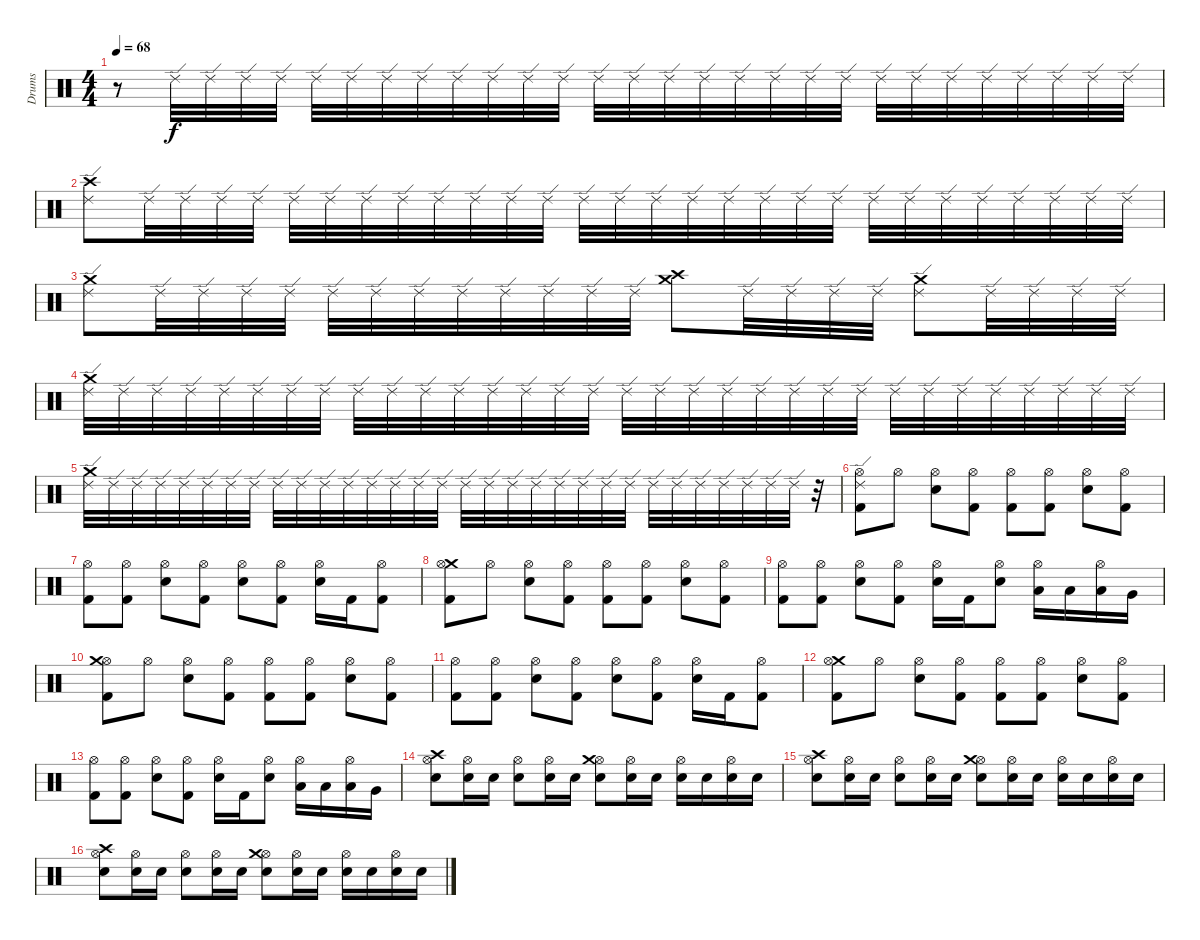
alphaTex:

\track ("Drums" "Drums") {instrument percussion}
\staff {score}
\articulation defaults
\ts (4 4)
\tempo 68
\clef neutral
\ks c
r.8{dy f} "Ride (edge) 2".32 "Ride (edge) 2".32 "Ride (edge) 2".32 "Ride (edge) 2".32 "Ride (edge) 2".32 "Ride (edge) 2".32 "Ride (edge) 2".32 "Ride (edge) 2".32 "Ride (edge) 2".32 "Ride (edge) 2".32 "Ride (edge) 2".32 "Ride (edge) 2".32 "Ride (edge) 2".32 "Ride (edge) 2".32 "Ride (edge) 2".32 "Ride (edge) 2".32 "Ride (edge) 2".32 "Ride (edge) 2".32 "Ride (edge) 2".32 "Ride (edge) 2".32 "Ride (edge) 2".32 "Ride (edge) 2".32 "Ride (edge) 2".32 "Ride (edge) 2".32 "Ride (edge) 2".32 "Ride (edge) 2".32 "Ride (edge) 2".32 "Ride (edge) 2".32 |
("Ride (edge) 2" "Crash high (hit)").8 "Ride (edge) 2".32 "Ride (edge) 2".32 "Ride (edge) 2".32 "Ride (edge) 2".32 "Ride (edge) 2".32 "Ride (edge) 2".32 "Ride (edge) 2".32 "Ride (edge) 2".32 "Ride (edge) 2".32 "Ride (edge) 2".32 "Ride (edge) 2".32 "Ride (edge) 2".32 "Ride (edge) 2".32 "Ride (edge) 2".32 "Ride (edge) 2".32 "Ride (edge) 2".32 "Ride (edge) 2".32 "Ride (edge) 2".32 "Ride (edge) 2".32 "Ride (edge) 2".32 "Ride (edge) 2".32 "Ride (edge) 2".32 "Ride (edge) 2".32 "Ride (edge) 2".32 "Ride (edge) 2".32 "Ride (edge) 2".32 "Ride (edge) 2".32 "Ride (edge) 2".32 |
("Crash medium (hit)" "Ride (edge) 2").8 "Ride (edge) 2".32 "Ride (edge) 2".32 "Ride (edge) 2".32 "Ride (edge) 2".32 "Ride (edge) 2".32 "Ride (edge) 2".32 "Ride (edge) 2".32 "Ride (edge) 2".32 "Ride (edge) 2".32 "Ride (edge) 2".32 "Ride (edge) 2".32 "Ride (edge) 2".32 ("Crash medium (hit)" "Crash high (hit)").8 "Ride (edge) 2".32 "Ride (edge) 2".32 "Ride (edge) 2".32 "Ride (edge) 2".32 ("Ride (edge) 2" "Crash medium (hit)").8 "Ride (edge) 2".32 "Ride (edge) 2".32 "Ride (edge) 2".32 "Ride (edge) 2".32 |
("Ride (edge) 2" "Crash medium (hit)").32 "Ride (edge) 2".32 "Ride (edge) 2".32 "Ride (edge) 2".32 "Ride (edge) 2".32 "Ride (edge) 2".32 "Ride (edge) 2".32 "Ride (edge) 2".32 "Ride (edge) 2".32 "Ride (edge) 2".32 "Ride (edge) 2".32 "Ride (edge) 2".32 "Ride (edge) 2".32 "Ride (edge) 2".32 "Ride (edge) 2".32 "Ride (edge) 2".32 "Ride (edge) 2".32 "Ride (edge) 2".32 "Ride (edge) 2".32 "Ride (edge) 2".32 "Ride (edge) 2".32 "Ride (edge) 2".32 "Ride (edge) 2".32 "Ride (edge) 2".32 "Ride (edge) 2".32 "Ride (edge) 2".32 "Ride (edge) 2".32 "Ride (edge) 2".32 "Ride (edge) 2".32 "Ride (edge) 2".32 "Ride (edge) 2".32 "Ride (edge) 2".32 |
("Ride (edge) 2" "Crash medium (hit)").32 "Ride (edge) 2".32 "Ride (edge) 2".32 "Ride (edge) 2".32 "Ride (edge) 2".32 "Ride (edge) 2".32 "Ride (edge) 2".32 "Ride (edge) 2".32 "Ride (edge) 2".32 "Ride (edge) 2".32 "Ride (edge) 2".32 "Ride (edge) 2".32 "Ride (edge) 2".32 "Ride (edge) 2".32 "Ride (edge) 2".32 "Ride (edge) 2".32 "Ride (edge) 2".32 "Ride (edge) 2".32 "Ride (edge) 2".32 "Ride (edge) 2".32 "Ride (edge) 2".32 "Ride (edge) 2".32 "Ride (edge) 2".32 "Ride (edge) 2".32 "Ride (edge) 2".32 "Ride (edge) 2".32 "Ride (edge) 2".32 "Ride (edge) 2".32 "Ride (edge) 2".32 "Ride (edge) 2".32 "Ride (edge) 2".32 r.32 |
("Ride (edge) 2" "Kick (hit) 2" "Hi-Hat (open)").8 "Hi-Hat (open)".8 ("Snare (hit) 2" "Hi-Hat (open)").8 ("Kick (hit) 2" "Hi-Hat (open)").8 ("Kick (hit) 2" "Hi-Hat (open)").8 ("Kick (hit) 2" "Hi-Hat (open)").8 ("Snare (hit) 2" "Hi-Hat (open)").8 ("Kick (hit) 2" "Hi-Hat (open)").8 |
("Kick (hit) 2" "Hi-Hat (open)").8 ("Kick (hit) 2" "Hi-Hat (open)").8 ("Snare (hit) 2" "Hi-Hat (open)").8 ("Kick (hit) 2" "Hi-Hat (open)").8 ("Snare (hit) 2" "Hi-Hat (open)").8 ("Kick (hit) 2" "Hi-Hat (open)").8 ("Snare (hit) 2" "Hi-Hat (open)").16 "Kick (hit) 2".16 ("Kick (hit) 2" "Hi-Hat (open)").8 |
("Kick (hit) 2" "Crash medium (hit)" "Hi-Hat (open)").8 "Hi-Hat (open)".8 ("Snare (hit) 2" "Hi-Hat (open)").8 ("Kick (hit) 2" "Hi-Hat (open)").8 ("Kick (hit) 2" "Hi-Hat (open)").8 ("Kick (hit) 2" "Hi-Hat (open)").8 ("Snare (hit) 2" "Hi-Hat (open)").8 ("Kick (hit) 2" "Hi-Hat (open)").8 |
("Kick (hit) 2" "Hi-Hat (open)").8 ("Kick (hit) 2" "Hi-Hat (open)").8 ("Snare (hit) 2" "Hi-Hat (open)").8 ("Kick (hit) 2" "Hi-Hat (open)").8 ("Snare (hit) 2" "Hi-Hat (open)").16 "Kick (hit) 2".16 ("Snare (hit) 2" "Hi-Hat (open)").8 ("Low Tom (hit)" "Hi-Hat (open)").16 "Low Tom (hit)".16 ("Low Tom (hit)" "Hi-Hat (open)").16 "Very Low Tom (hit)".16 |
("Kick (hit) 2" "Hi-Hat (open)" "Crash medium (hit)").8 "Hi-Hat (open)".8 ("Snare (hit) 2" "Hi-Hat (open)").8 ("Kick (hit) 2" "Hi-Hat (open)").8 ("Kick (hit) 2" "Hi-Hat (open)").8 ("Kick (hit) 2" "Hi-Hat (open)").8 ("Snare (hit) 2" "Hi-Hat (open)").8 ("Kick (hit) 2" "Hi-Hat (open)").8 |
("Kick (hit) 2" "Hi-Hat (open)").8 ("Kick (hit) 2" "Hi-Hat (open)").8 ("Snare (hit) 2" "Hi-Hat (open)").8 ("Kick (hit) 2" "Hi-Hat (open)").8 ("Snare (hit) 2" "Hi-Hat (open)").8 ("Kick (hit) 2" "Hi-Hat (open)").8 ("Snare (hit) 2" "Hi-Hat (open)").16 "Kick (hit) 2".16 ("Kick (hit) 2" "Hi-Hat (open)").8 |
("Kick (hit) 2" "Crash medium (hit)" "Hi-Hat (open)").8 "Hi-Hat (open)".8 ("Snare (hit) 2" "Hi-Hat (open)").8 ("Kick (hit) 2" "Hi-Hat (open)").8 ("Kick (hit) 2" "Hi-Hat (open)").8 ("Kick (hit) 2" "Hi-Hat (open)").8 ("Snare (hit) 2" "Hi-Hat (open)").8 ("Kick (hit) 2" "Hi-Hat (open)").8 |
("Kick (hit) 2" "Hi-Hat (open)").8 ("Kick (hit) 2" "Hi-Hat (open)").8 ("Snare (hit) 2" "Hi-Hat (open)").8 ("Kick (hit) 2" "Hi-Hat (open)").8 ("Snare (hit) 2" "Hi-Hat (open)").16 "Kick (hit) 2".16 ("Snare (hit) 2" "Hi-Hat (open)").8 ("Low Tom (hit)" "Hi-Hat (open)").16 "Low Tom (hit)".16 ("Low Tom (hit)" "Hi-Hat (open)").16 "Very Low Tom (hit)".16 |
("Snare (hit) 2" "Crash high (hit)" "Hi-Hat (open)").8 ("Snare (hit) 2" "Hi-Hat (open)").16 "Snare (hit) 2".16 ("Snare (hit) 2" "Hi-Hat (open)").8 ("Snare (hit) 2" "Hi-Hat (open)").16 "Snare (hit) 2".16 ("Snare (hit) 2" "Hi-Hat (open)" "Crash medium (hit)").8 ("Snare (hit) 2" "Hi-Hat (open)").16 "Snare (hit) 2".16 ("Snare (hit) 2" "Hi-Hat (open)").16 "Snare (hit) 2".16 ("Snare (hit) 2" "Hi-Hat (open)").16 "Snare (hit) 2".16 |
("Snare (hit) 2" "Hi-Hat (open)" "Crash high (hit)").8 ("Snare (hit) 2" "Hi-Hat (open)").16 "Snare (hit) 2".16 ("Snare (hit) 2" "Hi-Hat (open)").8 ("Snare (hit) 2" "Hi-Hat (open)").16 "Snare (hit) 2".16 ("Snare (hit) 2" "Hi-Hat (open)" "Crash medium (hit)").8 ("Snare (hit) 2" "Hi-Hat (open)").16 "Snare (hit) 2".16 ("Snare (hit) 2" "Hi-Hat (open)").16 "Snare (hit) 2".16 ("Snare (hit) 2" "Hi-Hat (open)").16 "Snare (hit) 2".16 |
("Snare (hit) 2" "Crash high (hit)" "Hi-Hat (open)").8 ("Snare (hit) 2" "Hi-Hat (open)").16 "Snare (hit) 2".16 ("Snare (hit) 2" "Hi-Hat (open)").8 ("Snare (hit) 2" "Hi-Hat (open)").16 "Snare (hit) 2".16 ("Snare (hit) 2" "Hi-Hat (open)" "Crash medium (hit)").8 ("Snare (hit) 2" "Hi-Hat (open)").16 "Snare (hit) 2".16 ("Snare (hit) 2" "Hi-Hat (open)").16 "Snare (hit) 2".16 ("Snare (hit) 2" "Hi-Hat (open)").16 "Snare (hit) 2".16
